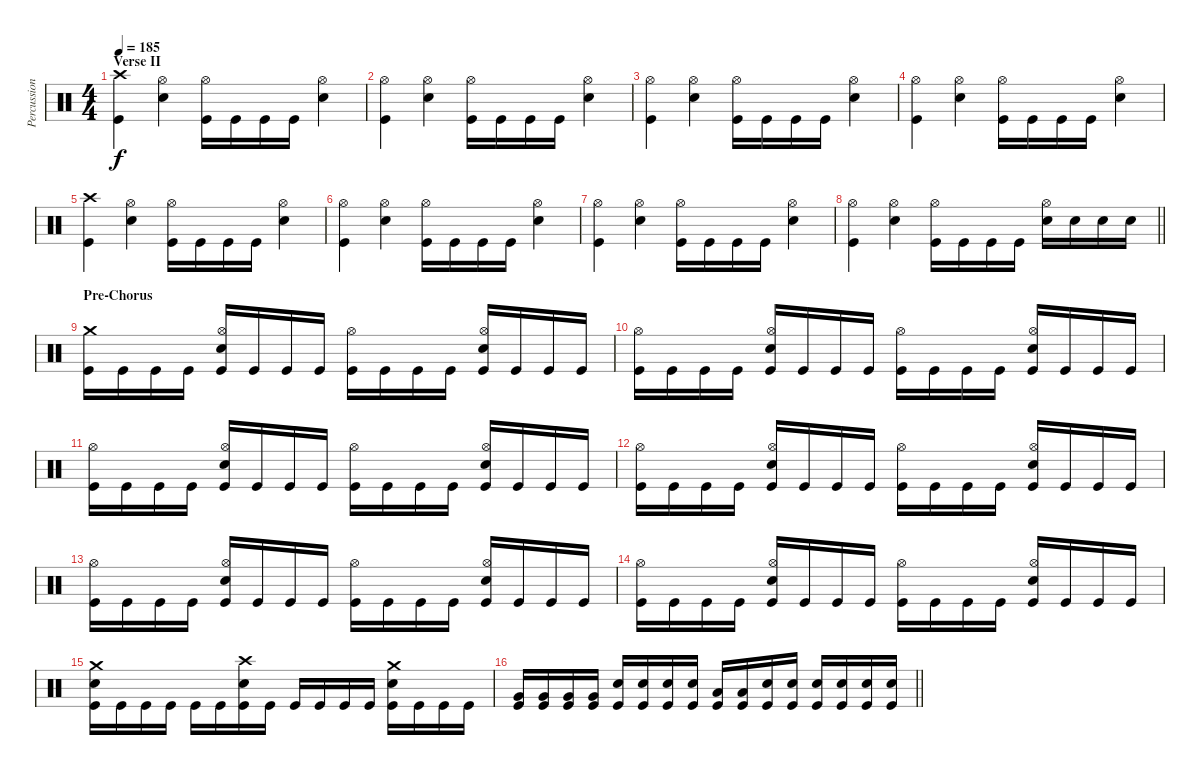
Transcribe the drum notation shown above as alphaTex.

\track ("Percussion" "Percussion") {instrument percussion}
\staff {score}
\articulation defaults
\ts (4 4)
\section ("" "Verse II")
\tempo 185
\clef neutral
\ks c
("Crash high (hit)" "Kick (hit)").4{dy f} ("Hi-Hat (open)" "Electric Snare (hit)").4 ("Hi-Hat (open)" "Kick (hit)").16 "Kick (hit)".16 "Kick (hit)".16 "Kick (hit)".16 ("Hi-Hat (open)" "Electric Snare (hit)").4 |
("Hi-Hat (open)" "Kick (hit)").4 ("Hi-Hat (open)" "Electric Snare (hit)").4 ("Hi-Hat (open)" "Kick (hit)").16 "Kick (hit)".16 "Kick (hit)".16 "Kick (hit)".16 ("Hi-Hat (open)" "Electric Snare (hit)").4 |
("Hi-Hat (open)" "Kick (hit)").4 ("Hi-Hat (open)" "Electric Snare (hit)").4 ("Hi-Hat (open)" "Kick (hit)").16 "Kick (hit)".16 "Kick (hit)".16 "Kick (hit)".16 ("Hi-Hat (open)" "Electric Snare (hit)").4 |
("Hi-Hat (open)" "Kick (hit)").4 ("Hi-Hat (open)" "Electric Snare (hit)").4 ("Hi-Hat (open)" "Kick (hit)").16 "Kick (hit)".16 "Kick (hit)".16 "Kick (hit)".16 ("Hi-Hat (open)" "Electric Snare (hit)").4 |
("Crash high (hit)" "Kick (hit)").4 ("Hi-Hat (open)" "Electric Snare (hit)").4 ("Hi-Hat (open)" "Kick (hit)").16 "Kick (hit)".16 "Kick (hit)".16 "Kick (hit)".16 ("Hi-Hat (open)" "Electric Snare (hit)").4 |
("Hi-Hat (open)" "Kick (hit)").4 ("Hi-Hat (open)" "Electric Snare (hit)").4 ("Hi-Hat (open)" "Kick (hit)").16 "Kick (hit)".16 "Kick (hit)".16 "Kick (hit)".16 ("Hi-Hat (open)" "Electric Snare (hit)").4 |
("Hi-Hat (open)" "Kick (hit)").4 ("Hi-Hat (open)" "Electric Snare (hit)").4 ("Hi-Hat (open)" "Kick (hit)").16 "Kick (hit)".16 "Kick (hit)".16 "Kick (hit)".16 ("Hi-Hat (open)" "Electric Snare (hit)").4 |
\barLineRight lightlight
("Hi-Hat (open)" "Kick (hit)").4 ("Hi-Hat (open)" "Electric Snare (hit)").4 ("Hi-Hat (open)" "Kick (hit)").16 "Kick (hit)".16 "Kick (hit)".16 "Kick (hit)".16 ("Hi-Hat (open)" "Electric Snare (hit)").16 "Electric Snare (hit)".16 "Electric Snare (hit)".16 "Electric Snare (hit)".16 |
\section ("" "Pre-Chorus")
("Crash medium (hit)" "Kick (hit)").16 "Kick (hit)".16 "Kick (hit)".16 "Kick (hit)".16 ("Hi-Hat (open)" "Electric Snare (hit)" "Kick (hit)").16 "Kick (hit)".16 "Kick (hit)".16 "Kick (hit)".16 ("Hi-Hat (open)" "Kick (hit)").16 "Kick (hit)".16 "Kick (hit)".16 "Kick (hit)".16 ("Hi-Hat (open)" "Electric Snare (hit)" "Kick (hit)").16 "Kick (hit)".16 "Kick (hit)".16 "Kick (hit)".16 |
("Hi-Hat (open)" "Kick (hit)").16 "Kick (hit)".16 "Kick (hit)".16 "Kick (hit)".16 ("Hi-Hat (open)" "Electric Snare (hit)" "Kick (hit)").16 "Kick (hit)".16 "Kick (hit)".16 "Kick (hit)".16 ("Hi-Hat (open)" "Kick (hit)").16 "Kick (hit)".16 "Kick (hit)".16 "Kick (hit)".16 ("Hi-Hat (open)" "Electric Snare (hit)" "Kick (hit)").16 "Kick (hit)".16 "Kick (hit)".16 "Kick (hit)".16 |
("Hi-Hat (open)" "Kick (hit)").16 "Kick (hit)".16 "Kick (hit)".16 "Kick (hit)".16 ("Hi-Hat (open)" "Electric Snare (hit)" "Kick (hit)").16 "Kick (hit)".16 "Kick (hit)".16 "Kick (hit)".16 ("Hi-Hat (open)" "Kick (hit)").16 "Kick (hit)".16 "Kick (hit)".16 "Kick (hit)".16 ("Hi-Hat (open)" "Electric Snare (hit)" "Kick (hit)").16 "Kick (hit)".16 "Kick (hit)".16 "Kick (hit)".16 |
("Hi-Hat (open)" "Kick (hit)").16 "Kick (hit)".16 "Kick (hit)".16 "Kick (hit)".16 ("Hi-Hat (open)" "Electric Snare (hit)" "Kick (hit)").16 "Kick (hit)".16 "Kick (hit)".16 "Kick (hit)".16 ("Hi-Hat (open)" "Kick (hit)").16 "Kick (hit)".16 "Kick (hit)".16 "Kick (hit)".16 ("Hi-Hat (open)" "Electric Snare (hit)" "Kick (hit)").16 "Kick (hit)".16 "Kick (hit)".16 "Kick (hit)".16 |
("Hi-Hat (open)" "Kick (hit)").16 "Kick (hit)".16 "Kick (hit)".16 "Kick (hit)".16 ("Hi-Hat (open)" "Electric Snare (hit)" "Kick (hit)").16 "Kick (hit)".16 "Kick (hit)".16 "Kick (hit)".16 ("Hi-Hat (open)" "Kick (hit)").16 "Kick (hit)".16 "Kick (hit)".16 "Kick (hit)".16 ("Hi-Hat (open)" "Electric Snare (hit)" "Kick (hit)").16 "Kick (hit)".16 "Kick (hit)".16 "Kick (hit)".16 |
("Hi-Hat (open)" "Kick (hit)").16 "Kick (hit)".16 "Kick (hit)".16 "Kick (hit)".16 ("Hi-Hat (open)" "Electric Snare (hit)" "Kick (hit)").16 "Kick (hit)".16 "Kick (hit)".16 "Kick (hit)".16 ("Hi-Hat (open)" "Kick (hit)").16 "Kick (hit)".16 "Kick (hit)".16 "Kick (hit)".16 ("Hi-Hat (open)" "Electric Snare (hit)" "Kick (hit)").16 "Kick (hit)".16 "Kick (hit)".16 "Kick (hit)".16 |
("Crash medium (hit)" "Electric Snare (hit)" "Kick (hit)").16 "Kick (hit)".16 "Kick (hit)".16 "Kick (hit)".16 "Kick (hit)".16 "Kick (hit)".16 ("Crash high (hit)" "Electric Snare (hit)" "Kick (hit)").16 "Kick (hit)".16 "Kick (hit)".16 "Kick (hit)".16 "Kick (hit)".16 "Kick (hit)".16 ("Crash medium (hit)" "Electric Snare (hit)" "Kick (hit)").16 "Kick (hit)".16 "Kick (hit)".16 "Kick (hit)".16 |
\barLineRight lightlight
("Very Low Tom (hit)" "Kick (hit)").16 ("Very Low Tom (hit)" "Kick (hit)").16 ("Very Low Tom (hit)" "Kick (hit)").16 ("Very Low Tom (hit)" "Kick (hit)").16 ("Electric Snare (hit)" "Kick (hit)").16 ("Electric Snare (hit)" "Kick (hit)").16 ("Electric Snare (hit)" "Kick (hit)").16 ("Electric Snare (hit)" "Kick (hit)").16 ("Low Tom (hit)" "Kick (hit)").16 ("Low Tom (hit)" "Kick (hit)").16 ("Electric Snare (hit)" "Kick (hit)").16 ("Electric Snare (hit)" "Kick (hit)").16 ("Electric Snare (hit)" "Kick (hit)").16 ("Electric Snare (hit)" "Kick (hit)").16 ("Electric Snare (hit)" "Kick (hit)").16 ("Electric Snare (hit)" "Kick (hit)").16
